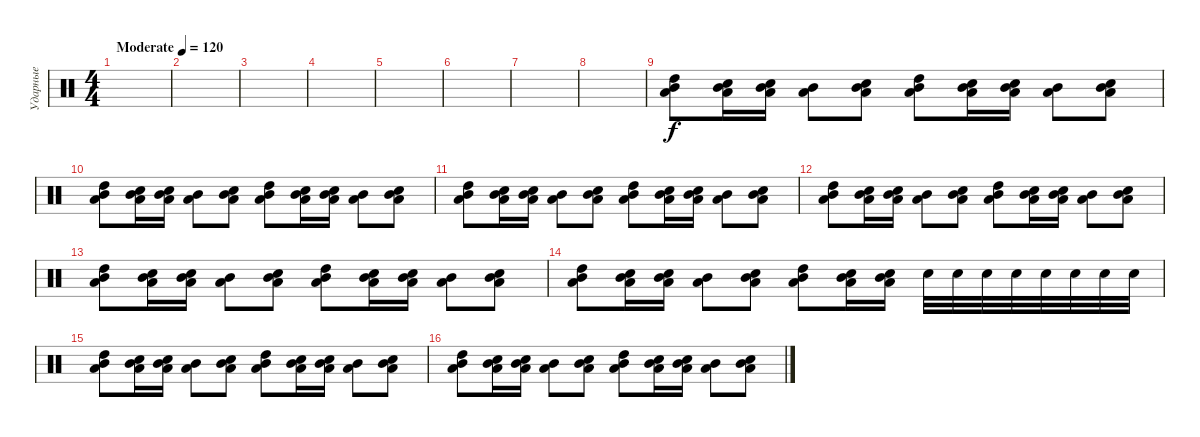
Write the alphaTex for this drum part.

\track ("Ударные" "Ударные") {instrument percussion}
\staff {score}
\articulation defaults
\ts (4 4)
\tempo (120 "Moderate")
\clef neutral
\ks c
|
|
|
|
|
|
|
|
("Mid Tom (hit)" "High Tom (hit)" "Low Tom (hit)").8 ("Electric Snare (hit)" "Mid Tom (hit)" "Low Tom (hit)").16 ("Electric Snare (hit)" "Mid Tom (hit)" "Low Tom (hit)").16 ("Mid Tom (hit)" "Low Tom (hit)").8 ("Snare (hit) 2" "Mid Tom (hit)" "Low Tom (hit)").8 ("Mid Tom (hit)" "High Tom (hit)" "Low Tom (hit)").8 ("Electric Snare (hit)" "Mid Tom (hit)" "Low Tom (hit)").16 ("Electric Snare (hit)" "Mid Tom (hit)" "Low Tom (hit)").16 ("Mid Tom (hit)" "Low Tom (hit)").8 ("Snare (hit) 2" "Mid Tom (hit)" "Low Tom (hit)").8 |
("Mid Tom (hit)" "High Tom (hit)" "Low Tom (hit)").8 ("Electric Snare (hit)" "Mid Tom (hit)" "Low Tom (hit)").16 ("Electric Snare (hit)" "Mid Tom (hit)" "Low Tom (hit)").16 ("Mid Tom (hit)" "Low Tom (hit)").8 ("Snare (hit) 2" "Mid Tom (hit)" "Low Tom (hit)").8 ("Mid Tom (hit)" "High Tom (hit)" "Low Tom (hit)").8 ("Electric Snare (hit)" "Mid Tom (hit)" "Low Tom (hit)").16 ("Electric Snare (hit)" "Mid Tom (hit)" "Low Tom (hit)").16 ("Mid Tom (hit)" "Low Tom (hit)").8 ("Snare (hit) 2" "Mid Tom (hit)" "Low Tom (hit)").8 |
("Mid Tom (hit)" "High Tom (hit)" "Low Tom (hit)").8 ("Electric Snare (hit)" "Mid Tom (hit)" "Low Tom (hit)").16 ("Electric Snare (hit)" "Mid Tom (hit)" "Low Tom (hit)").16 ("Mid Tom (hit)" "Low Tom (hit)").8 ("Snare (hit) 2" "Mid Tom (hit)" "Low Tom (hit)").8 ("Mid Tom (hit)" "High Tom (hit)" "Low Tom (hit)").8 ("Electric Snare (hit)" "Mid Tom (hit)" "Low Tom (hit)").16 ("Electric Snare (hit)" "Mid Tom (hit)" "Low Tom (hit)").16 ("Mid Tom (hit)" "Low Tom (hit)").8 ("Snare (hit) 2" "Mid Tom (hit)" "Low Tom (hit)").8 |
("Mid Tom (hit)" "High Tom (hit)" "Low Tom (hit)").8 ("Electric Snare (hit)" "Mid Tom (hit)" "Low Tom (hit)").16 ("Electric Snare (hit)" "Mid Tom (hit)" "Low Tom (hit)").16 ("Mid Tom (hit)" "Low Tom (hit)").8 ("Snare (hit) 2" "Mid Tom (hit)" "Low Tom (hit)").8 ("Mid Tom (hit)" "High Tom (hit)" "Low Tom (hit)").8 ("Electric Snare (hit)" "Mid Tom (hit)" "Low Tom (hit)").16 ("Electric Snare (hit)" "Mid Tom (hit)" "Low Tom (hit)").16 ("Mid Tom (hit)" "Low Tom (hit)").8 ("Snare (hit) 2" "Mid Tom (hit)" "Low Tom (hit)").8 |
("Mid Tom (hit)" "High Tom (hit)" "Low Tom (hit)").8 ("Electric Snare (hit)" "Mid Tom (hit)" "Low Tom (hit)").16 ("Electric Snare (hit)" "Mid Tom (hit)" "Low Tom (hit)").16 ("Mid Tom (hit)" "Low Tom (hit)").8 ("Snare (hit) 2" "Mid Tom (hit)" "Low Tom (hit)").8 ("Mid Tom (hit)" "High Tom (hit)" "Low Tom (hit)").8 ("Electric Snare (hit)" "Mid Tom (hit)" "Low Tom (hit)").16 ("Electric Snare (hit)" "Mid Tom (hit)" "Low Tom (hit)").16 ("Mid Tom (hit)" "Low Tom (hit)").8 ("Snare (hit) 2" "Mid Tom (hit)" "Low Tom (hit)").8 |
("Mid Tom (hit)" "High Tom (hit)" "Low Tom (hit)").8 ("Electric Snare (hit)" "Mid Tom (hit)" "Low Tom (hit)").16 ("Electric Snare (hit)" "Mid Tom (hit)" "Low Tom (hit)").16 ("Mid Tom (hit)" "Low Tom (hit)").8 ("Snare (hit) 2" "Mid Tom (hit)" "Low Tom (hit)").8 ("Mid Tom (hit)" "High Tom (hit)" "Low Tom (hit)").8 ("Electric Snare (hit)" "Mid Tom (hit)" "Low Tom (hit)").16 ("Electric Snare (hit)" "Mid Tom (hit)" "Low Tom (hit)").16 "Electric Snare (hit)".32 "Electric Snare (hit)".32 "Electric Snare (hit)".32 "Electric Snare (hit)".32 "Electric Snare (hit)".32 "Electric Snare (hit)".32 "Electric Snare (hit)".32 "Electric Snare (hit)".32 |
("Mid Tom (hit)" "High Tom (hit)" "Low Tom (hit)").8 ("Electric Snare (hit)" "Mid Tom (hit)" "Low Tom (hit)").16 ("Electric Snare (hit)" "Mid Tom (hit)" "Low Tom (hit)").16 ("Mid Tom (hit)" "Low Tom (hit)").8 ("Snare (hit) 2" "Mid Tom (hit)" "Low Tom (hit)").8 ("Mid Tom (hit)" "High Tom (hit)" "Low Tom (hit)").8 ("Electric Snare (hit)" "Mid Tom (hit)" "Low Tom (hit)").16 ("Electric Snare (hit)" "Mid Tom (hit)" "Low Tom (hit)").16 ("Mid Tom (hit)" "Low Tom (hit)").8 ("Snare (hit) 2" "Mid Tom (hit)" "Low Tom (hit)").8 |
("Mid Tom (hit)" "High Tom (hit)" "Low Tom (hit)").8 ("Electric Snare (hit)" "Mid Tom (hit)" "Low Tom (hit)").16 ("Electric Snare (hit)" "Mid Tom (hit)" "Low Tom (hit)").16 ("Mid Tom (hit)" "Low Tom (hit)").8 ("Snare (hit) 2" "Mid Tom (hit)" "Low Tom (hit)").8 ("Mid Tom (hit)" "High Tom (hit)" "Low Tom (hit)").8 ("Electric Snare (hit)" "Mid Tom (hit)" "Low Tom (hit)").16 ("Electric Snare (hit)" "Mid Tom (hit)" "Low Tom (hit)").16 ("Mid Tom (hit)" "Low Tom (hit)").8 ("Snare (hit) 2" "Mid Tom (hit)" "Low Tom (hit)").8
